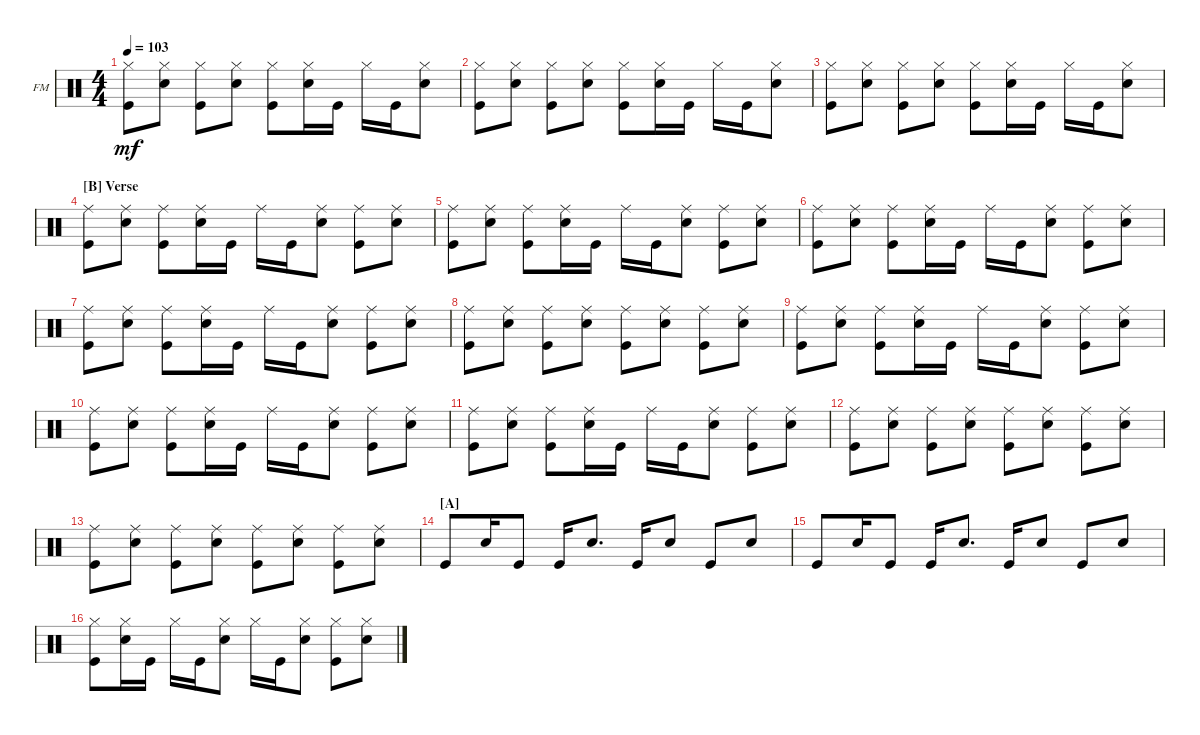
\defaultSystemsLayout 4
\bracketExtendMode groupsimilarinstruments
\firstSystemTrackNameOrientation horizontal
\otherSystemsTrackNameOrientation horizontal
\track ("Fabrizio Moretti" "FM") {instrument percussion}
\staff {score}
\articulation defaults
\ts (4 4)
\tempo 103
\clef neutral
\ks c
("Kick (hit)" "Hi-Hat (closed)").8{dy mf} ("Snare (hit) 2" "Hi-Hat (closed)").8 ("Kick (hit)" "Hi-Hat (closed)").8 ("Snare (hit) 2" "Hi-Hat (closed)").8 ("Kick (hit)" "Hi-Hat (closed)").8 ("Snare (hit) 2" "Hi-Hat (closed)").16 "Kick (hit)".16 "Hi-Hat (closed)".16 "Kick (hit)".16 ("Snare (hit) 2" "Hi-Hat (closed)").8 |
("Kick (hit)" "Hi-Hat (closed)").8 ("Snare (hit) 2" "Hi-Hat (closed)").8 ("Kick (hit)" "Hi-Hat (closed)").8 ("Snare (hit) 2" "Hi-Hat (closed)").8 ("Kick (hit)" "Hi-Hat (closed)").8 ("Snare (hit) 2" "Hi-Hat (closed)").16 "Kick (hit)".16 "Hi-Hat (closed)".16 "Kick (hit)".16 ("Snare (hit) 2" "Hi-Hat (closed)").8 |
("Kick (hit)" "Hi-Hat (closed)").8 ("Snare (hit) 2" "Hi-Hat (closed)").8 ("Kick (hit)" "Hi-Hat (closed)").8 ("Snare (hit) 2" "Hi-Hat (closed)").8 ("Kick (hit)" "Hi-Hat (closed)").8 ("Snare (hit) 2" "Hi-Hat (closed)").16 "Kick (hit)".16 "Hi-Hat (closed)".16 "Kick (hit)".16 ("Snare (hit) 2" "Hi-Hat (closed)").8 |
\section ("B" "Verse")
("Kick (hit)" "Ride (middle)").8 ("Snare (hit) 2" "Ride (middle)").8 ("Kick (hit)" "Ride (middle)").8 ("Snare (hit) 2" "Ride (middle)").16 "Kick (hit)".16 "Ride (middle)".16 "Kick (hit)".16 ("Snare (hit) 2" "Ride (middle)").8 ("Kick (hit)" "Ride (middle)").8 ("Snare (hit) 2" "Ride (middle)").8 |
("Kick (hit)" "Ride (middle)").8 ("Snare (hit) 2" "Ride (middle)").8 ("Kick (hit)" "Ride (middle)").8 ("Snare (hit) 2" "Ride (middle)").16 "Kick (hit)".16 "Ride (middle)".16 "Kick (hit)".16 ("Snare (hit) 2" "Ride (middle)").8 ("Kick (hit)" "Ride (middle)").8 ("Snare (hit) 2" "Ride (middle)").8 |
("Kick (hit)" "Ride (middle)").8 ("Snare (hit) 2" "Ride (middle)").8 ("Kick (hit)" "Ride (middle)").8 ("Snare (hit) 2" "Ride (middle)").16 "Kick (hit)".16 "Ride (middle)".16 "Kick (hit)".16 ("Snare (hit) 2" "Ride (middle)").8 ("Kick (hit)" "Ride (middle)").8 ("Snare (hit) 2" "Ride (middle)").8 |
("Kick (hit)" "Ride (middle)").8 ("Snare (hit) 2" "Ride (middle)").8 ("Kick (hit)" "Ride (middle)").8 ("Snare (hit) 2" "Ride (middle)").16 "Kick (hit)".16 "Ride (middle)".16 "Kick (hit)".16 ("Snare (hit) 2" "Ride (middle)").8 ("Kick (hit)" "Ride (middle)").8 ("Snare (hit) 2" "Ride (middle)").8 |
("Kick (hit)" "Ride (middle)").8 ("Snare (hit) 2" "Ride (middle)").8 ("Kick (hit)" "Ride (middle)").8 ("Snare (hit) 2" "Ride (middle)").8 ("Kick (hit)" "Ride (middle)").8 ("Snare (hit) 2" "Ride (middle)").8 ("Kick (hit)" "Ride (middle)").8 ("Snare (hit) 2" "Ride (middle)").8 |
("Kick (hit)" "Ride (middle)").8 ("Snare (hit) 2" "Ride (middle)").8 ("Kick (hit)" "Ride (middle)").8 ("Snare (hit) 2" "Ride (middle)").16 "Kick (hit)".16 "Ride (middle)".16 "Kick (hit)".16 ("Snare (hit) 2" "Ride (middle)").8 ("Kick (hit)" "Ride (middle)").8 ("Snare (hit) 2" "Ride (middle)").8 |
("Kick (hit)" "Ride (middle)").8 ("Snare (hit) 2" "Ride (middle)").8 ("Kick (hit)" "Ride (middle)").8 ("Snare (hit) 2" "Ride (middle)").16 "Kick (hit)".16 "Ride (middle)".16 "Kick (hit)".16 ("Snare (hit) 2" "Ride (middle)").8 ("Kick (hit)" "Ride (middle)").8 ("Snare (hit) 2" "Ride (middle)").8 |
("Kick (hit)" "Ride (middle)").8 ("Snare (hit) 2" "Ride (middle)").8 ("Kick (hit)" "Ride (middle)").8 ("Snare (hit) 2" "Ride (middle)").16 "Kick (hit)".16 "Ride (middle)".16 "Kick (hit)".16 ("Snare (hit) 2" "Ride (middle)").8 ("Kick (hit)" "Ride (middle)").8 ("Snare (hit) 2" "Ride (middle)").8 |
("Kick (hit)" "Ride (middle)").8 ("Snare (hit) 2" "Ride (middle)").8 ("Kick (hit)" "Ride (middle)").8 ("Snare (hit) 2" "Ride (middle)").8 ("Kick (hit)" "Ride (middle)").8 ("Snare (hit) 2" "Ride (middle)").8 ("Kick (hit)" "Ride (middle)").8 ("Snare (hit) 2" "Ride (middle)").8 |
("Kick (hit)" "Ride (middle)").8 ("Snare (hit) 2" "Ride (middle)").8 ("Kick (hit)" "Ride (middle)").8 ("Snare (hit) 2" "Ride (middle)").8 ("Kick (hit)" "Ride (middle)").8 ("Snare (hit) 2" "Ride (middle)").8 ("Kick (hit)" "Ride (middle)").8 ("Snare (hit) 2" "Ride (middle)").8 |
\section ("A" "")
"Kick (hit)".8 "Snare (hit) 2".16 "Kick (hit)".8 "Kick (hit)".16 "Snare (hit) 2".8{d} "Kick (hit)".16 "Snare (hit) 2".8 "Kick (hit)".8 "Snare (hit) 2".8 |
"Kick (hit)".8 "Snare (hit) 2".16 "Kick (hit)".8 "Kick (hit)".16 "Snare (hit) 2".8{d} "Kick (hit)".16 "Snare (hit) 2".8 "Kick (hit)".8 "Snare (hit) 2".8 |
("Kick (hit)" "Hi-Hat (closed)").8 ("Snare (hit) 2" "Hi-Hat (closed)").16 "Kick (hit)".16 "Hi-Hat (closed)".16 "Kick (hit)".16 ("Snare (hit) 2" "Hi-Hat (closed)").8 "Hi-Hat (closed)".16 "Kick (hit)".16 ("Snare (hit) 2" "Hi-Hat (closed)").8 ("Kick (hit)" "Hi-Hat (closed)").8 ("Snare (hit) 2" "Hi-Hat (closed)").8
